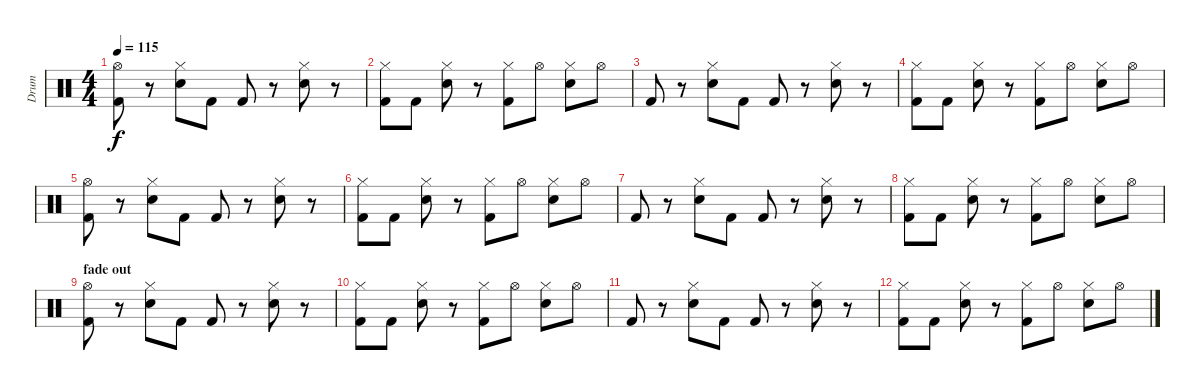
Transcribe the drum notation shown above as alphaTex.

\track ("Drum" "Drum") {instrument percussion}
\staff {score}
\articulation defaults
\ts (4 4)
\tempo 115
\clef neutral
\ks c
("Hi-Hat (open)" "Kick (hit) 2").8{dy f} r.8 ("Hi-Hat (closed)" "Electric Snare (hit)").8 "Kick (hit) 2".8 "Kick (hit) 2".8 r.8 ("Hi-Hat (closed)" "Electric Snare (hit)").8 r.8 |
("Hi-Hat (closed)" "Kick (hit) 2").8 "Kick (hit) 2".8 ("Hi-Hat (closed)" "Electric Snare (hit)").8 r.8 ("Hi-Hat (closed)" "Kick (hit) 2").8 "Hi-Hat (open)".8 ("Hi-Hat (closed)" "Electric Snare (hit)").8 "Hi-Hat (open)".8 |
"Kick (hit) 2".8 r.8 ("Hi-Hat (closed)" "Electric Snare (hit)").8 "Kick (hit) 2".8 "Kick (hit) 2".8 r.8 ("Hi-Hat (closed)" "Electric Snare (hit)").8 r.8 |
("Hi-Hat (closed)" "Kick (hit) 2").8 "Kick (hit) 2".8 ("Hi-Hat (closed)" "Electric Snare (hit)").8 r.8 ("Hi-Hat (closed)" "Kick (hit) 2").8 "Hi-Hat (open)".8 ("Hi-Hat (closed)" "Electric Snare (hit)").8 "Hi-Hat (open)".8 |
("Hi-Hat (open)" "Kick (hit) 2").8 r.8 ("Hi-Hat (closed)" "Electric Snare (hit)").8 "Kick (hit) 2".8 "Kick (hit) 2".8 r.8 ("Hi-Hat (closed)" "Electric Snare (hit)").8 r.8 |
("Hi-Hat (closed)" "Kick (hit) 2").8 "Kick (hit) 2".8 ("Hi-Hat (closed)" "Electric Snare (hit)").8 r.8 ("Hi-Hat (closed)" "Kick (hit) 2").8 "Hi-Hat (open)".8 ("Hi-Hat (closed)" "Electric Snare (hit)").8 "Hi-Hat (open)".8 |
"Kick (hit) 2".8 r.8 ("Hi-Hat (closed)" "Electric Snare (hit)").8 "Kick (hit) 2".8 "Kick (hit) 2".8 r.8 ("Hi-Hat (closed)" "Electric Snare (hit)").8 r.8 |
("Hi-Hat (closed)" "Kick (hit) 2").8 "Kick (hit) 2".8 ("Hi-Hat (closed)" "Electric Snare (hit)").8 r.8 ("Hi-Hat (closed)" "Kick (hit) 2").8 "Hi-Hat (open)".8 ("Hi-Hat (closed)" "Electric Snare (hit)").8 "Hi-Hat (open)".8 |
\section ("" "fade out")
("Hi-Hat (open)" "Kick (hit) 2").8 r.8 ("Hi-Hat (closed)" "Electric Snare (hit)").8 "Kick (hit) 2".8 "Kick (hit) 2".8 r.8 ("Hi-Hat (closed)" "Electric Snare (hit)").8 r.8 |
("Hi-Hat (closed)" "Kick (hit) 2").8 "Kick (hit) 2".8 ("Hi-Hat (closed)" "Electric Snare (hit)").8 r.8 ("Hi-Hat (closed)" "Kick (hit) 2").8 "Hi-Hat (open)".8 ("Hi-Hat (closed)" "Electric Snare (hit)").8 "Hi-Hat (open)".8 |
"Kick (hit) 2".8 r.8 ("Hi-Hat (closed)" "Electric Snare (hit)").8 "Kick (hit) 2".8 "Kick (hit) 2".8 r.8 ("Hi-Hat (closed)" "Electric Snare (hit)").8 r.8 |
("Hi-Hat (closed)" "Kick (hit) 2").8 "Kick (hit) 2".8 ("Hi-Hat (closed)" "Electric Snare (hit)").8 r.8 ("Hi-Hat (closed)" "Kick (hit) 2").8 "Hi-Hat (open)".8 ("Hi-Hat (closed)" "Electric Snare (hit)").8 "Hi-Hat (open)".8
